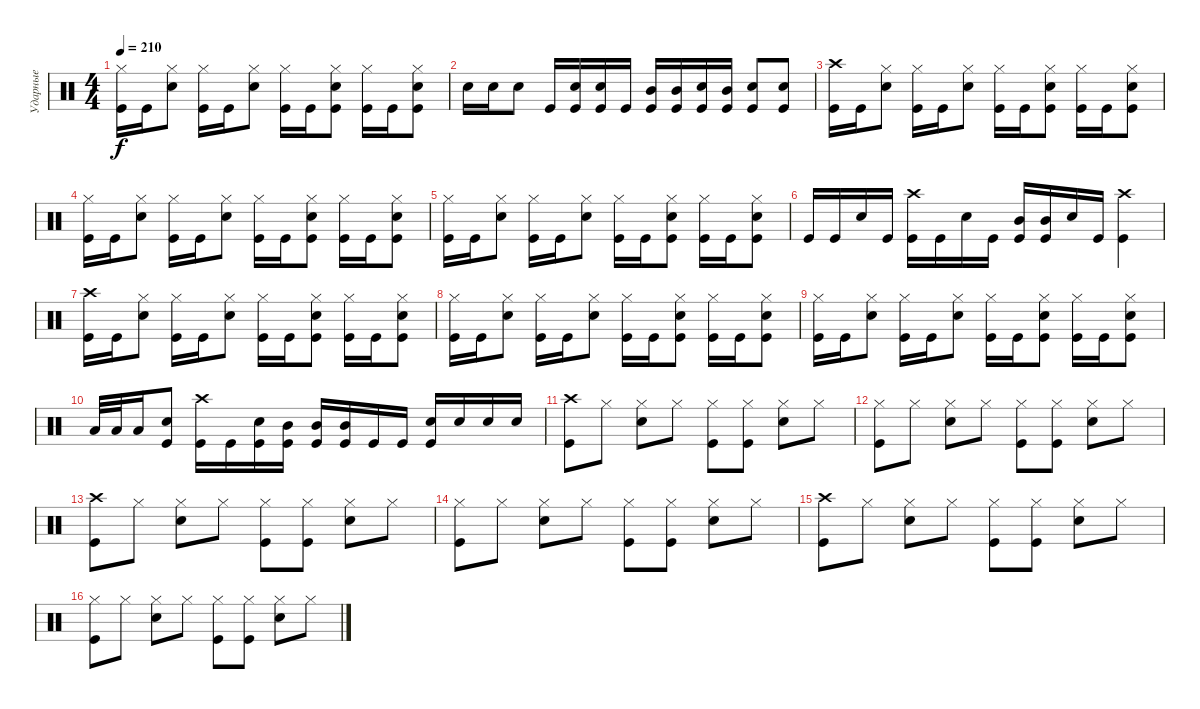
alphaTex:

\track ("Ударные" "Ударные") {instrument percussion}
\staff {score}
\articulation defaults
\ts (4 4)
\tempo 210
\clef neutral
\ks c
("Hi-Hat (closed)" "Kick (hit)").16{dy f} "Kick (hit)".16 ("Hi-Hat (closed)" "Electric Snare (hit)").8 ("Hi-Hat (closed)" "Kick (hit)").16 "Kick (hit)".16 ("Hi-Hat (closed)" "Electric Snare (hit)").8 ("Hi-Hat (closed)" "Kick (hit)").16 "Kick (hit)".16 ("Hi-Hat (closed)" "Electric Snare (hit)" "Kick (hit)").8 ("Hi-Hat (closed)" "Kick (hit)").16 "Kick (hit)".16 ("Hi-Hat (closed)" "Electric Snare (hit)" "Kick (hit)").8 |
"Electric Snare (hit)".16 "Electric Snare (hit)".16 "Electric Snare (hit)".8 "Kick (hit)".16 ("Electric Snare (hit)" "Kick (hit)").16 ("Electric Snare (hit)" "Kick (hit)").16 "Kick (hit)".16 ("Mid Tom (hit)" "Kick (hit)").16 ("Mid Tom (hit)" "Kick (hit)").16 ("Electric Snare (hit)" "Kick (hit)").16 ("Mid Tom (hit)" "Kick (hit)").16 ("Electric Snare (hit)" "Kick (hit)").8 ("Electric Snare (hit)" "Kick (hit)").8 |
("Crash high (hit)" "Kick (hit)").16 "Kick (hit)".16 ("Hi-Hat (closed)" "Electric Snare (hit)").8 ("Hi-Hat (closed)" "Kick (hit)").16 "Kick (hit)".16 ("Hi-Hat (closed)" "Electric Snare (hit)").8 ("Hi-Hat (closed)" "Kick (hit)").16 "Kick (hit)".16 ("Hi-Hat (closed)" "Electric Snare (hit)" "Kick (hit)").8 ("Hi-Hat (closed)" "Kick (hit)").16 "Kick (hit)".16 ("Hi-Hat (closed)" "Electric Snare (hit)" "Kick (hit)").8 |
("Hi-Hat (closed)" "Kick (hit)").16 "Kick (hit)".16 ("Hi-Hat (closed)" "Electric Snare (hit)").8 ("Hi-Hat (closed)" "Kick (hit)").16 "Kick (hit)".16 ("Hi-Hat (closed)" "Electric Snare (hit)").8 ("Hi-Hat (closed)" "Kick (hit)").16 "Kick (hit)".16 ("Hi-Hat (closed)" "Electric Snare (hit)" "Kick (hit)").8 ("Hi-Hat (closed)" "Kick (hit)").16 "Kick (hit)".16 ("Hi-Hat (closed)" "Electric Snare (hit)" "Kick (hit)").8 |
("Hi-Hat (closed)" "Kick (hit)").16 "Kick (hit)".16 ("Hi-Hat (closed)" "Electric Snare (hit)").8 ("Hi-Hat (closed)" "Kick (hit)").16 "Kick (hit)".16 ("Hi-Hat (closed)" "Electric Snare (hit)").8 ("Hi-Hat (closed)" "Kick (hit)").16 "Kick (hit)".16 ("Hi-Hat (closed)" "Electric Snare (hit)" "Kick (hit)").8 ("Hi-Hat (closed)" "Kick (hit)").16 "Kick (hit)".16 ("Hi-Hat (closed)" "Electric Snare (hit)" "Kick (hit)").8 |
"Kick (hit)".16 "Kick (hit)".16 "Electric Snare (hit)".16 "Kick (hit)".16 ("Crash high (hit)" "Kick (hit)").16 "Kick (hit)".16 "Electric Snare (hit)".16 "Kick (hit)".16 ("Mid Tom (hit)" "Kick (hit)").16 ("Mid Tom (hit)" "Kick (hit)").16 "Electric Snare (hit)".16 "Kick (hit)".16 ("Crash high (hit)" "Kick (hit)").4 |
("Crash high (hit)" "Kick (hit)").16 "Kick (hit)".16 ("Hi-Hat (closed)" "Electric Snare (hit)").8 ("Hi-Hat (closed)" "Kick (hit)").16 "Kick (hit)".16 ("Hi-Hat (closed)" "Electric Snare (hit)").8 ("Hi-Hat (closed)" "Kick (hit)").16 "Kick (hit)".16 ("Hi-Hat (closed)" "Electric Snare (hit)" "Kick (hit)").8 ("Hi-Hat (closed)" "Kick (hit)").16 "Kick (hit)".16 ("Hi-Hat (closed)" "Electric Snare (hit)" "Kick (hit)").8 |
("Hi-Hat (closed)" "Kick (hit)").16 "Kick (hit)".16 ("Hi-Hat (closed)" "Electric Snare (hit)").8 ("Hi-Hat (closed)" "Kick (hit)").16 "Kick (hit)".16 ("Hi-Hat (closed)" "Electric Snare (hit)").8 ("Hi-Hat (closed)" "Kick (hit)").16 "Kick (hit)".16 ("Hi-Hat (closed)" "Electric Snare (hit)" "Kick (hit)").8 ("Hi-Hat (closed)" "Kick (hit)").16 "Kick (hit)".16 ("Hi-Hat (closed)" "Electric Snare (hit)" "Kick (hit)").8 |
("Hi-Hat (closed)" "Kick (hit)").16 "Kick (hit)".16 ("Hi-Hat (closed)" "Electric Snare (hit)").8 ("Hi-Hat (closed)" "Kick (hit)").16 "Kick (hit)".16 ("Hi-Hat (closed)" "Electric Snare (hit)").8 ("Hi-Hat (closed)" "Kick (hit)").16 "Kick (hit)".16 ("Hi-Hat (closed)" "Electric Snare (hit)" "Kick (hit)").8 ("Hi-Hat (closed)" "Kick (hit)").16 "Kick (hit)".16 ("Hi-Hat (closed)" "Electric Snare (hit)" "Kick (hit)").8 |
"Low Tom (hit)".32 "Low Tom (hit)".32 "Low Tom (hit)".16 ("Electric Snare (hit)" "Kick (hit)").8 ("Crash high (hit)" "Kick (hit)").16 "Kick (hit)".16 ("Electric Snare (hit)" "Kick (hit)").16 ("Mid Tom (hit)" "Kick (hit)").16 ("Mid Tom (hit)" "Kick (hit)").16 ("Mid Tom (hit)" "Kick (hit)").16 "Kick (hit)".16 "Kick (hit)".16 ("Electric Snare (hit)" "Kick (hit)").16 "Electric Snare (hit)".16 "Electric Snare (hit)".16 "Electric Snare (hit)".16 |
("Crash high (hit)" "Kick (hit)").8 "Hi-Hat (closed)".8 ("Hi-Hat (closed)" "Electric Snare (hit)").8 "Hi-Hat (closed)".8 ("Hi-Hat (closed)" "Kick (hit)").8 ("Hi-Hat (closed)" "Kick (hit)").8 ("Hi-Hat (closed)" "Electric Snare (hit)").8 "Hi-Hat (closed)".8 |
("Hi-Hat (closed)" "Kick (hit)").8 "Hi-Hat (closed)".8 ("Hi-Hat (closed)" "Electric Snare (hit)").8 "Hi-Hat (closed)".8 ("Hi-Hat (closed)" "Kick (hit)").8 ("Hi-Hat (closed)" "Kick (hit)").8 ("Hi-Hat (closed)" "Electric Snare (hit)").8 "Hi-Hat (closed)".8 |
("Crash high (hit)" "Kick (hit)").8 "Hi-Hat (closed)".8 ("Hi-Hat (closed)" "Electric Snare (hit)").8 "Hi-Hat (closed)".8 ("Hi-Hat (closed)" "Kick (hit)").8 ("Hi-Hat (closed)" "Kick (hit)").8 ("Hi-Hat (closed)" "Electric Snare (hit)").8 "Hi-Hat (closed)".8 |
("Hi-Hat (closed)" "Kick (hit)").8 "Hi-Hat (closed)".8 ("Hi-Hat (closed)" "Electric Snare (hit)").8 "Hi-Hat (closed)".8 ("Hi-Hat (closed)" "Kick (hit)").8 ("Hi-Hat (closed)" "Kick (hit)").8 ("Hi-Hat (closed)" "Electric Snare (hit)").8 "Hi-Hat (closed)".8 |
("Crash high (hit)" "Kick (hit)").8 "Hi-Hat (closed)".8 ("Hi-Hat (closed)" "Electric Snare (hit)").8 "Hi-Hat (closed)".8 ("Hi-Hat (closed)" "Kick (hit)").8 ("Hi-Hat (closed)" "Kick (hit)").8 ("Hi-Hat (closed)" "Electric Snare (hit)").8 "Hi-Hat (closed)".8 |
("Hi-Hat (closed)" "Kick (hit)").8 "Hi-Hat (closed)".8 ("Hi-Hat (closed)" "Electric Snare (hit)").8 "Hi-Hat (closed)".8 ("Hi-Hat (closed)" "Kick (hit)").8 ("Hi-Hat (closed)" "Kick (hit)").8 ("Hi-Hat (closed)" "Electric Snare (hit)").8 "Hi-Hat (closed)".8
